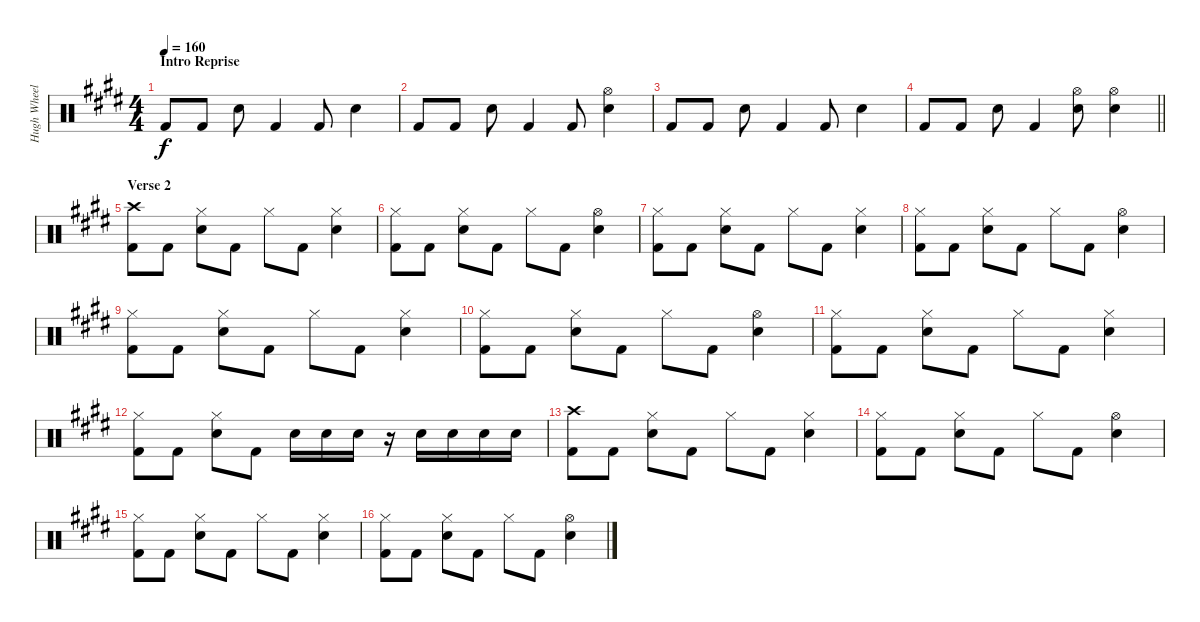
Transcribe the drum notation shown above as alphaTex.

\track ("Hugh Wheeler - Drums" "Hugh Wheel") {instrument percussion}
\staff {score}
\articulation defaults
\ts (4 4)
\section ("" "Intro Reprise")
\tempo 160
\clef neutral
\ks e "Kick (hit) 2".8{dy f} "Kick (hit) 2".8 "Electric Snare (hit)".8 "Kick (hit) 2".4 "Kick (hit) 2".8 "Electric Snare (hit)".4
|
"Kick (hit) 2".8 "Kick (hit) 2".8 "Electric Snare (hit)".8 "Kick (hit) 2".4 "Kick (hit) 2".8 ("Hi-Hat (open)" "Electric Snare (hit)").4 |
"Kick (hit) 2".8 "Kick (hit) 2".8 "Electric Snare (hit)".8 "Kick (hit) 2".4 "Kick (hit) 2".8 "Electric Snare (hit)".4 |
\barLineRight lightlight "Kick (hit) 2".8 "Kick (hit) 2".8 "Electric Snare (hit)".8 "Kick (hit) 2".4
("Hi-Hat (open)" "Electric Snare (hit)").8 ("Hi-Hat (open)" "Electric Snare (hit)").4 |
\section ("" "Verse 2")
("Crash high (hit)" "Kick (hit) 2").8 "Kick (hit) 2".8 ("Hi-Hat (closed)" "Electric Snare (hit)").8 "Kick (hit) 2".8 "Hi-Hat (closed)".8 "Kick (hit) 2".8 ("Hi-Hat (closed)" "Electric Snare (hit)").4 |
("Hi-Hat (closed)" "Kick (hit) 2").8 "Kick (hit) 2".8 ("Hi-Hat (closed)" "Electric Snare (hit)").8 "Kick (hit) 2".8 "Hi-Hat (closed)".8 "Kick (hit) 2".8 ("Hi-Hat (open)" "Electric Snare (hit)").4 |
("Hi-Hat (closed)" "Kick (hit) 2").8 "Kick (hit) 2".8 ("Hi-Hat (closed)" "Electric Snare (hit)").8 "Kick (hit) 2".8 "Hi-Hat (closed)".8 "Kick (hit) 2".8 ("Hi-Hat (closed)" "Electric Snare (hit)").4 |
("Hi-Hat (closed)" "Kick (hit) 2").8 "Kick (hit) 2".8 ("Hi-Hat (closed)" "Electric Snare (hit)").8 "Kick (hit) 2".8 "Hi-Hat (closed)".8 "Kick (hit) 2".8 ("Hi-Hat (open)" "Electric Snare (hit)").4 |
("Hi-Hat (closed)" "Kick (hit) 2").8 "Kick (hit) 2".8 ("Hi-Hat (closed)" "Electric Snare (hit)").8 "Kick (hit) 2".8 "Hi-Hat (closed)".8 "Kick (hit) 2".8 ("Hi-Hat (closed)" "Electric Snare (hit)").4 |
("Hi-Hat (closed)" "Kick (hit) 2").8 "Kick (hit) 2".8 ("Hi-Hat (closed)" "Electric Snare (hit)").8 "Kick (hit) 2".8 "Hi-Hat (closed)".8 "Kick (hit) 2".8 ("Hi-Hat (open)" "Electric Snare (hit)").4 |
("Hi-Hat (closed)" "Kick (hit) 2").8 "Kick (hit) 2".8 ("Hi-Hat (closed)" "Electric Snare (hit)").8 "Kick (hit) 2".8 "Hi-Hat (closed)".8 "Kick (hit) 2".8 ("Hi-Hat (closed)" "Electric Snare (hit)").4 |
("Hi-Hat (closed)" "Kick (hit) 2").8 "Kick (hit) 2".8 ("Hi-Hat (closed)" "Electric Snare (hit)").8 "Kick (hit) 2".8 "Electric Snare (hit)".16 "Electric Snare (hit)".16 "Electric Snare (hit)".16 r.16 "Electric Snare (hit)".16 "Electric Snare (hit)".16 "Electric Snare (hit)".16 "Electric Snare (hit)".16 |
("Crash high (hit)" "Kick (hit) 2").8 "Kick (hit) 2".8 ("Hi-Hat (closed)" "Electric Snare (hit)").8 "Kick (hit) 2".8 "Hi-Hat (closed)".8 "Kick (hit) 2".8 ("Hi-Hat (closed)" "Electric Snare (hit)").4 |
("Hi-Hat (closed)" "Kick (hit) 2").8 "Kick (hit) 2".8 ("Hi-Hat (closed)" "Electric Snare (hit)").8 "Kick (hit) 2".8 "Hi-Hat (closed)".8 "Kick (hit) 2".8 ("Hi-Hat (open)" "Electric Snare (hit)").4 |
("Hi-Hat (closed)" "Kick (hit) 2").8 "Kick (hit) 2".8 ("Hi-Hat (closed)" "Electric Snare (hit)").8 "Kick (hit) 2".8 "Hi-Hat (closed)".8 "Kick (hit) 2".8 ("Hi-Hat (closed)" "Electric Snare (hit)").4 |
("Hi-Hat (closed)" "Kick (hit) 2").8 "Kick (hit) 2".8 ("Hi-Hat (closed)" "Electric Snare (hit)").8 "Kick (hit) 2".8 "Hi-Hat (closed)".8 "Kick (hit) 2".8 ("Hi-Hat (open)" "Electric Snare (hit)").4
